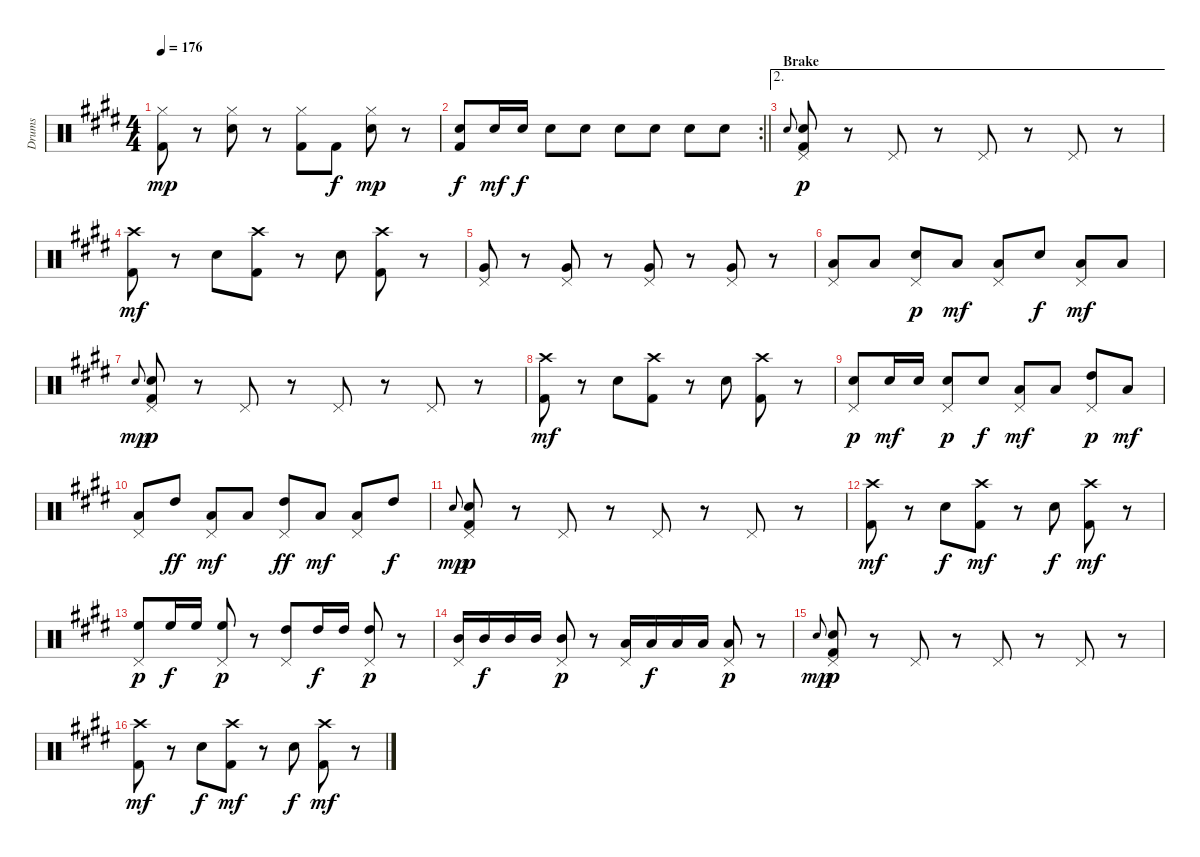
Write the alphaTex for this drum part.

\track ("Drums" "Drums") {instrument percussion}
\staff {score}
\articulation defaults
\ts (4 4)
\tempo 176
\clef neutral
\ks e
("Hi-Hat (closed)" "Kick (hit) 2").8{dy mp} r.8 ("Hi-Hat (closed)" "Snare (hit) 2").8 r.8 ("Hi-Hat (closed)" "Kick (hit) 2").8 "Kick (hit) 2".8{dy f} ("Hi-Hat (closed)" "Snare (hit) 2").8{dy mp} r.8 |
\rc 2
\barLineRight lightlight
("Snare (hit) 2" "Kick (hit) 2").8{dy f} "Snare (hit) 2".16{dy mf} "Snare (hit) 2".16{dy f} "Snare (hit) 2".8 "Snare (hit) 2".8 "Snare (hit) 2".8 "Snare (hit) 2".8 "Snare (hit) 2".8 "Snare (hit) 2".8 |
\ae 2
\section ("" "Brake")
"Snare (hit) 2".8{gr onbeat} ("Pedal Hi-Hat (hit)" "Snare (hit) 2" "Kick (hit) 2").8{dy p} r.8 "Pedal Hi-Hat (hit)".8 r.8 "Pedal Hi-Hat (hit)".8 r.8 "Pedal Hi-Hat (hit)".8 r.8 |
("Crash high (hit)" "Kick (hit) 2").8{dy mf} r.8 "Snare (hit) 2".8 ("Crash high (hit)" "Kick (hit) 2").8 r.8 "Snare (hit) 2".8 ("Crash high (hit)" "Kick (hit) 2").8 r.8 |
("Pedal Hi-Hat (hit)" "Very Low Tom (hit)").8 r.8 ("Pedal Hi-Hat (hit)" "Very Low Tom (hit)").8 r.8 ("Pedal Hi-Hat (hit)" "Very Low Tom (hit)").8 r.8 ("Pedal Hi-Hat (hit)" "Very Low Tom (hit)").8 r.8 |
("Pedal Hi-Hat (hit)" "Low Tom (hit)").8 "Low Tom (hit)".8 ("Pedal Hi-Hat (hit)" "Electric Snare (hit)").8{dy p} "Low Tom (hit)".8{dy mf} ("Pedal Hi-Hat (hit)" "Low Tom (hit)").8 "Electric Snare (hit)".8{dy f} ("Pedal Hi-Hat (hit)" "Low Tom (hit)").8{dy mf} "Low Tom (hit)".8 |
"Snare (hit) 2".8{gr onbeat dy mp} ("Pedal Hi-Hat (hit)" "Electric Snare (hit)" "Kick (hit) 2").8{dy p} r.8 "Pedal Hi-Hat (hit)".8 r.8 "Pedal Hi-Hat (hit)".8 r.8 "Pedal Hi-Hat (hit)".8 r.8 |
("Crash high (hit)" "Kick (hit) 2").8{dy mf} r.8 "Snare (hit) 2".8 ("Crash high (hit)" "Kick (hit) 2").8 r.8 "Snare (hit) 2".8 ("Crash high (hit)" "Kick (hit) 2").8 r.8 |
("Pedal Hi-Hat (hit)" "Snare (hit) 2").8{dy p} "Snare (hit) 2".16{dy mf} "Snare (hit) 2".16 ("Pedal Hi-Hat (hit)" "Snare (hit) 2").8{dy p} "Snare (hit) 2".8{dy f} ("Pedal Hi-Hat (hit)" "Low Tom (hit)").8{dy mf} "Low Tom (hit)".8 ("Pedal Hi-Hat (hit)" "High Tom (hit)").8{dy p} "Low Tom (hit)".8{dy mf} |
("Pedal Hi-Hat (hit)" "Low Tom (hit)").8 "High Tom (hit)".8{dy ff} ("Pedal Hi-Hat (hit)" "Low Tom (hit)").8{dy mf} "Low Tom (hit)".8 ("Pedal Hi-Hat (hit)" "High Tom (hit)").8{dy ff} "Low Tom (hit)".8{dy mf} ("Pedal Hi-Hat (hit)" "Low Tom (hit)").8 "High Tom (hit)".8{dy f} |
"Snare (hit) 2".8{gr onbeat dy mp} ("Pedal Hi-Hat (hit)" "Snare (hit) 2" "Kick (hit) 2").8{dy p} r.8 "Pedal Hi-Hat (hit)".8 r.8 "Pedal Hi-Hat (hit)".8 r.8 "Pedal Hi-Hat (hit)".8 r.8 |
("Crash high (hit)" "Kick (hit) 2").8{dy mf} r.8 "Snare (hit) 2".8{dy f} ("Crash high (hit)" "Kick (hit) 2").8{dy mf} r.8 "Snare (hit) 2".8{dy f} ("Crash high (hit)" "Kick (hit) 2").8{dy mf} r.8 |
("Pedal Hi-Hat (hit)" "High Floor Tom (hit)").8{dy p} "High Floor Tom (hit)".16{dy f} "High Floor Tom (hit)".16 ("Pedal Hi-Hat (hit)" "High Floor Tom (hit)").8{dy p} r.8 ("Pedal Hi-Hat (hit)" "High Tom (hit)").8 "High Tom (hit)".16{dy f} "High Tom (hit)".16 ("Pedal Hi-Hat (hit)" "High Tom (hit)").8{dy p} r.8 |
("Pedal Hi-Hat (hit)" "Mid Tom (hit)").16 "Mid Tom (hit)".16{dy f} "Mid Tom (hit)".16 "Mid Tom (hit)".16 ("Pedal Hi-Hat (hit)" "Mid Tom (hit)").8{dy p} r.8 ("Pedal Hi-Hat (hit)" "Low Tom (hit)").16 "Low Tom (hit)".16{dy f} "Low Tom (hit)".16 "Low Tom (hit)".16 ("Pedal Hi-Hat (hit)" "Low Tom (hit)").8{dy p} r.8 |
"Snare (hit) 2".8{gr onbeat dy mp} ("Pedal Hi-Hat (hit)" "Snare (hit) 2" "Kick (hit) 2").8{dy p} r.8 "Pedal Hi-Hat (hit)".8 r.8 "Pedal Hi-Hat (hit)".8 r.8 "Pedal Hi-Hat (hit)".8 r.8 |
("Crash high (hit)" "Kick (hit) 2").8{dy mf} r.8 "Snare (hit) 2".8{dy f} ("Crash high (hit)" "Kick (hit) 2").8{dy mf} r.8 "Snare (hit) 2".8{dy f} ("Crash high (hit)" "Kick (hit) 2").8{dy mf} r.8
